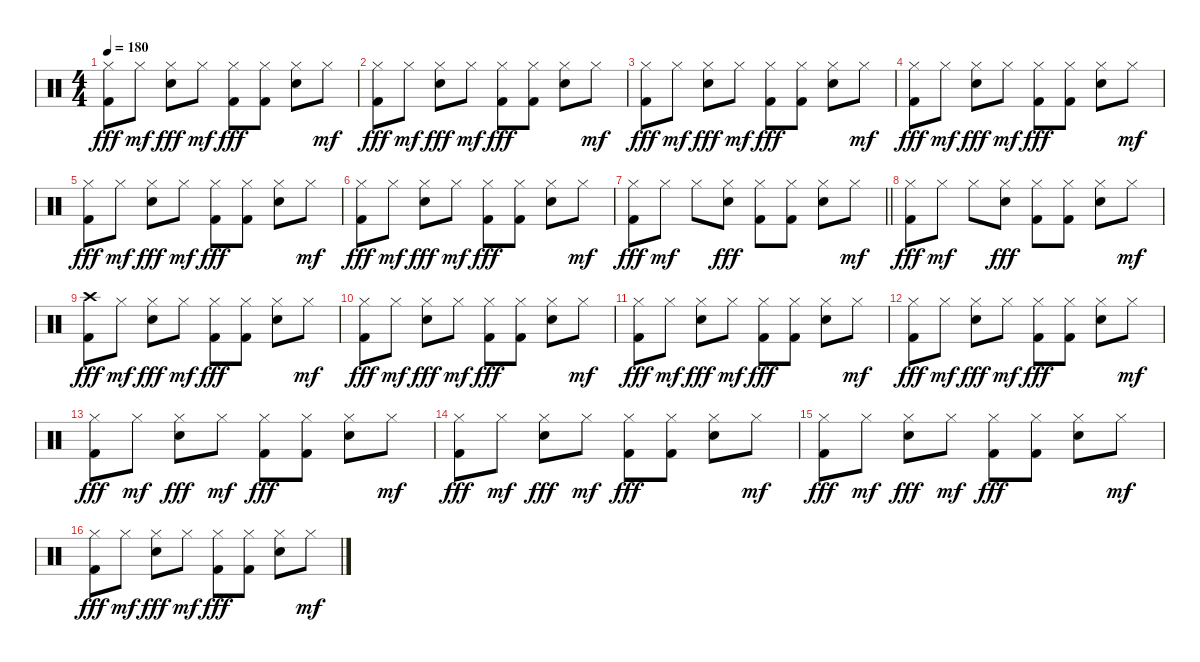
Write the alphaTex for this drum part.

\track "" {instrument percussion}
\staff {score}
\articulation defaults
\ts (4 4)
\tempo 180
\clef neutral
\ks c
("Hi-Hat (closed)" "Kick (hit) 2").8{dy fff} "Hi-Hat (closed)".8{dy mf} ("Hi-Hat (closed)" "Snare (hit) 2").8{dy fff} "Hi-Hat (closed)".8{dy mf} ("Hi-Hat (closed)" "Kick (hit) 2").8{dy fff} ("Hi-Hat (closed)" "Kick (hit) 2").8 ("Hi-Hat (closed)" "Snare (hit) 2").8 "Hi-Hat (closed)".8{dy mf} |
("Hi-Hat (closed)" "Kick (hit) 2").8{dy fff} "Hi-Hat (closed)".8{dy mf} ("Hi-Hat (closed)" "Snare (hit) 2").8{dy fff} "Hi-Hat (closed)".8{dy mf} ("Hi-Hat (closed)" "Kick (hit) 2").8{dy fff} ("Hi-Hat (closed)" "Kick (hit) 2").8 ("Hi-Hat (closed)" "Snare (hit) 2").8 "Hi-Hat (closed)".8{dy mf} |
("Hi-Hat (closed)" "Kick (hit) 2").8{dy fff} "Hi-Hat (closed)".8{dy mf} ("Hi-Hat (closed)" "Snare (hit) 2").8{dy fff} "Hi-Hat (closed)".8{dy mf} ("Hi-Hat (closed)" "Kick (hit) 2").8{dy fff} ("Hi-Hat (closed)" "Kick (hit) 2").8 ("Hi-Hat (closed)" "Snare (hit) 2").8 "Hi-Hat (closed)".8{dy mf} |
("Hi-Hat (closed)" "Kick (hit) 2").8{dy fff} "Hi-Hat (closed)".8{dy mf} ("Hi-Hat (closed)" "Snare (hit) 2").8{dy fff} "Hi-Hat (closed)".8{dy mf} ("Hi-Hat (closed)" "Kick (hit) 2").8{dy fff} ("Hi-Hat (closed)" "Kick (hit) 2").8 ("Hi-Hat (closed)" "Snare (hit) 2").8 "Hi-Hat (closed)".8{dy mf} |
("Hi-Hat (closed)" "Kick (hit) 2").8{dy fff} "Hi-Hat (closed)".8{dy mf} ("Hi-Hat (closed)" "Snare (hit) 2").8{dy fff} "Hi-Hat (closed)".8{dy mf} ("Hi-Hat (closed)" "Kick (hit) 2").8{dy fff} ("Hi-Hat (closed)" "Kick (hit) 2").8 ("Hi-Hat (closed)" "Snare (hit) 2").8 "Hi-Hat (closed)".8{dy mf} |
("Hi-Hat (closed)" "Kick (hit) 2").8{dy fff} "Hi-Hat (closed)".8{dy mf} ("Hi-Hat (closed)" "Snare (hit) 2").8{dy fff} "Hi-Hat (closed)".8{dy mf} ("Hi-Hat (closed)" "Kick (hit) 2").8{dy fff} ("Hi-Hat (closed)" "Kick (hit) 2").8 ("Hi-Hat (closed)" "Snare (hit) 2").8 "Hi-Hat (closed)".8{dy mf} |
\barLineRight lightlight
("Hi-Hat (closed)" "Kick (hit) 2").8{dy fff} "Hi-Hat (closed)".8{dy mf} "Hi-Hat (closed)".8 ("Hi-Hat (closed)" "Snare (hit) 2").8{dy fff} ("Hi-Hat (closed)" "Kick (hit) 2").8 ("Hi-Hat (closed)" "Kick (hit) 2").8 ("Hi-Hat (closed)" "Snare (hit) 2").8 "Hi-Hat (closed)".8{dy mf} |
\section ("" "")
("Hi-Hat (closed)" "Kick (hit) 2").8{dy fff} "Hi-Hat (closed)".8{dy mf} "Hi-Hat (closed)".8 ("Hi-Hat (closed)" "Snare (hit) 2").8{dy fff} ("Hi-Hat (closed)" "Kick (hit) 2").8 ("Hi-Hat (closed)" "Kick (hit) 2").8 ("Hi-Hat (closed)" "Snare (hit) 2").8 "Hi-Hat (closed)".8{dy mf} |
("Crash high (hit)" "Kick (hit) 2").8{dy fff} "Hi-Hat (closed)".8{dy mf} ("Hi-Hat (closed)" "Snare (hit) 2").8{dy fff} "Hi-Hat (closed)".8{dy mf} ("Hi-Hat (closed)" "Kick (hit) 2").8{dy fff} ("Hi-Hat (closed)" "Kick (hit) 2").8 ("Hi-Hat (closed)" "Snare (hit) 2").8 "Hi-Hat (closed)".8{dy mf} |
("Hi-Hat (closed)" "Kick (hit) 2").8{dy fff} "Hi-Hat (closed)".8{dy mf} ("Hi-Hat (closed)" "Snare (hit) 2").8{dy fff} "Hi-Hat (closed)".8{dy mf} ("Hi-Hat (closed)" "Kick (hit) 2").8{dy fff} ("Hi-Hat (closed)" "Kick (hit) 2").8 ("Hi-Hat (closed)" "Snare (hit) 2").8 "Hi-Hat (closed)".8{dy mf} |
("Hi-Hat (closed)" "Kick (hit) 2").8{dy fff} "Hi-Hat (closed)".8{dy mf} ("Hi-Hat (closed)" "Snare (hit) 2").8{dy fff} "Hi-Hat (closed)".8{dy mf} ("Hi-Hat (closed)" "Kick (hit) 2").8{dy fff} ("Hi-Hat (closed)" "Kick (hit) 2").8 ("Hi-Hat (closed)" "Snare (hit) 2").8 "Hi-Hat (closed)".8{dy mf} |
("Hi-Hat (closed)" "Kick (hit) 2").8{dy fff} "Hi-Hat (closed)".8{dy mf} ("Hi-Hat (closed)" "Snare (hit) 2").8{dy fff} "Hi-Hat (closed)".8{dy mf} ("Hi-Hat (closed)" "Kick (hit) 2").8{dy fff} ("Hi-Hat (closed)" "Kick (hit) 2").8 ("Hi-Hat (closed)" "Snare (hit) 2").8 "Hi-Hat (closed)".8{dy mf} |
("Hi-Hat (closed)" "Kick (hit) 2").8{dy fff} "Hi-Hat (closed)".8{dy mf} ("Hi-Hat (closed)" "Snare (hit) 2").8{txt "" dy fff} "Hi-Hat (closed)".8{dy mf} ("Hi-Hat (closed)" "Kick (hit) 2").8{dy fff} ("Hi-Hat (closed)" "Kick (hit) 2").8 ("Hi-Hat (closed)" "Snare (hit) 2").8 "Hi-Hat (closed)".8{dy mf} |
("Hi-Hat (closed)" "Kick (hit) 2").8{dy fff} "Hi-Hat (closed)".8{dy mf} ("Hi-Hat (closed)" "Snare (hit) 2").8{dy fff} "Hi-Hat (closed)".8{dy mf} ("Hi-Hat (closed)" "Kick (hit) 2").8{dy fff} ("Hi-Hat (closed)" "Kick (hit) 2").8 ("Hi-Hat (closed)" "Snare (hit) 2").8 "Hi-Hat (closed)".8{dy mf} |
("Hi-Hat (closed)" "Kick (hit) 2").8{dy fff} "Hi-Hat (closed)".8{dy mf} ("Hi-Hat (closed)" "Snare (hit) 2").8{dy fff} "Hi-Hat (closed)".8{dy mf} ("Hi-Hat (closed)" "Kick (hit) 2").8{dy fff} ("Hi-Hat (closed)" "Kick (hit) 2").8 ("Hi-Hat (closed)" "Snare (hit) 2").8 "Hi-Hat (closed)".8{dy mf} |
("Hi-Hat (closed)" "Kick (hit) 2").8{dy fff} "Hi-Hat (closed)".8{dy mf} ("Hi-Hat (closed)" "Snare (hit) 2").8{dy fff} "Hi-Hat (closed)".8{dy mf} ("Hi-Hat (closed)" "Kick (hit) 2").8{dy fff} ("Hi-Hat (closed)" "Kick (hit) 2").8 ("Hi-Hat (closed)" "Snare (hit) 2").8 "Hi-Hat (closed)".8{dy mf}
